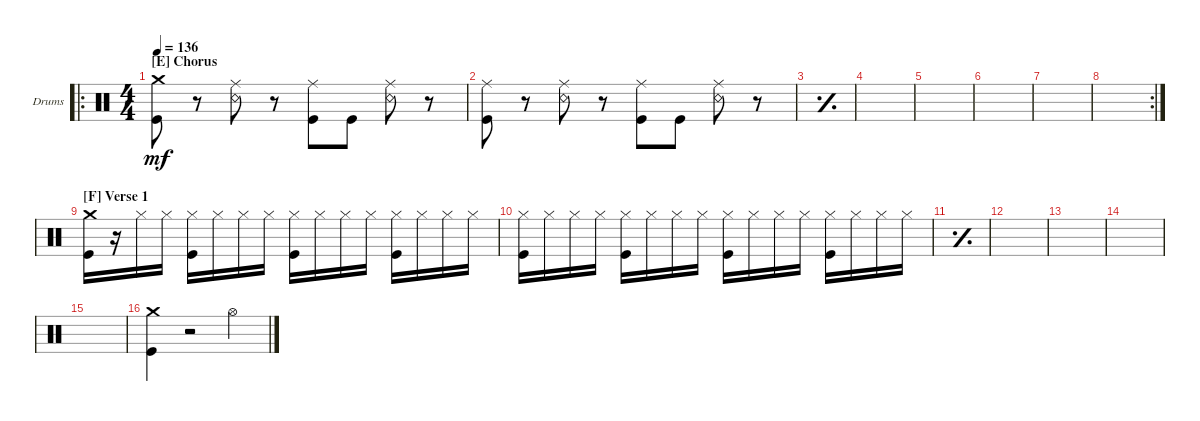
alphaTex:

\defaultSystemsLayout 4
\bracketExtendMode groupsimilarinstruments
\firstSystemTrackNameOrientation horizontal
\otherSystemsTrackNameOrientation horizontal
\track ("Drums" "Drums") {instrument percussion}
\staff {score}
\articulation defaults
\ro
\ts (4 4)
\section ("E" "Chorus")
\tempo 136
\clef neutral
\ks c
("Kick (hit)" "Crash medium (hit)").8{dy mf} r.8 ("Ride (middle)" "Snare (rim shot)").8 r.8 ("Ride (middle)" "Kick (hit)").8 "Kick (hit)".8 ("Ride (middle)" "Snare (rim shot)").8 r.8 |
("Kick (hit)" "Ride (middle)").8 r.8 ("Ride (middle)" "Snare (rim shot)").8 r.8 ("Ride (middle)" "Kick (hit)").8 "Kick (hit)".8 ("Ride (middle)" "Snare (rim shot)").8 r.8 |
\simile simple
|
|
|
|
|
\rc 2
|
\section ("F" "Verse 1")
\simile none
("Kick (hit)" "Crash medium (hit)").16 r.16 "Hi-Hat (closed)".16 "Hi-Hat (closed)".16 ("Hi-Hat (closed)" "Kick (hit)").16 "Hi-Hat (closed)".16 "Hi-Hat (closed)".16 "Hi-Hat (closed)".16 ("Hi-Hat (closed)" "Kick (hit)").16 "Hi-Hat (closed)".16 "Hi-Hat (closed)".16 "Hi-Hat (closed)".16 ("Hi-Hat (closed)" "Kick (hit)").16 "Hi-Hat (closed)".16 "Hi-Hat (closed)".16 "Hi-Hat (closed)".16 |
("Hi-Hat (closed)" "Kick (hit)").16 "Hi-Hat (closed)".16 "Hi-Hat (closed)".16 "Hi-Hat (closed)".16 ("Hi-Hat (closed)" "Kick (hit)").16 "Hi-Hat (closed)".16 "Hi-Hat (closed)".16 "Hi-Hat (closed)".16 ("Hi-Hat (closed)" "Kick (hit)").16 "Hi-Hat (closed)".16 "Hi-Hat (closed)".16 "Hi-Hat (closed)".16 ("Hi-Hat (closed)" "Kick (hit)").16 "Hi-Hat (closed)".16 "Hi-Hat (closed)".16 "Hi-Hat (closed)".16 |
\simile simple
|
|
|
|
|
\simile none
("Kick (hit)" "Crash medium (hit)").4 r.2 "Hi-Hat (open)".4
